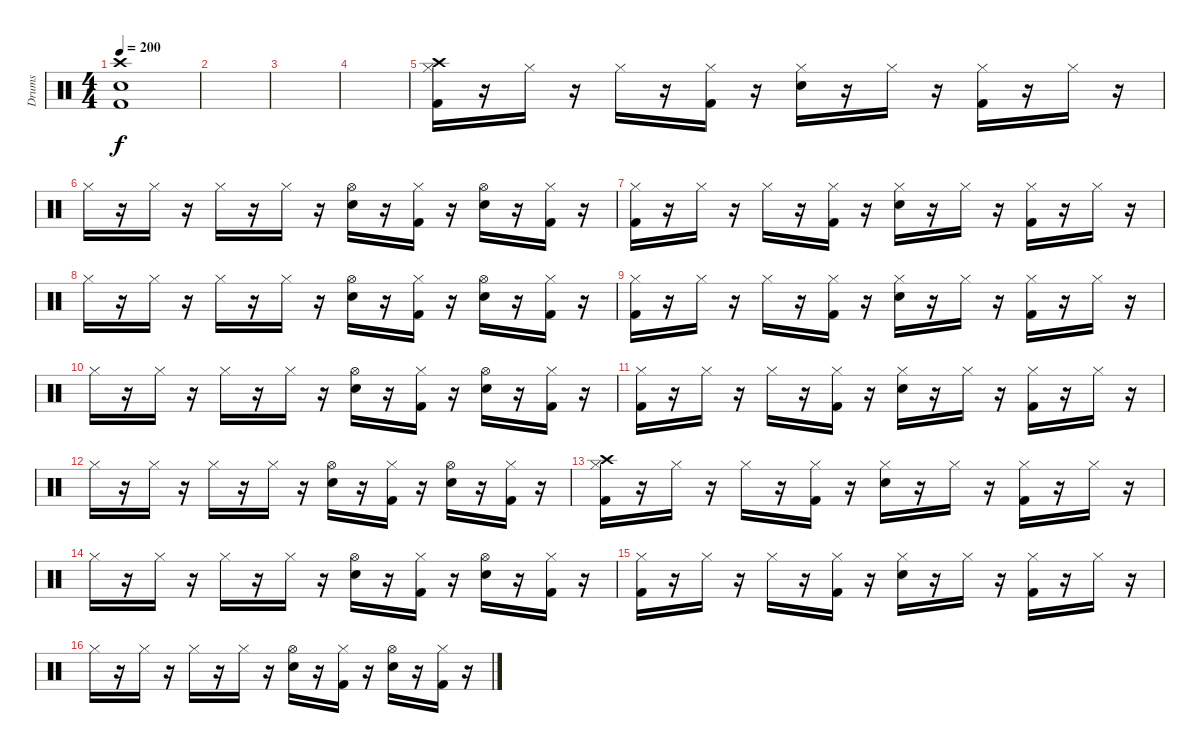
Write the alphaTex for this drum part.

\track ("Drums" "Drums") {instrument percussion}
\staff {score}
\articulation defaults
\ts (4 4)
\tempo 200
\clef neutral
\ks c
("Crash high (hit)" "Electric Snare (hit)" "Kick (hit) 2").1{dy f} |
|
|
|
("Crash high (hit)" "Hi-Hat (closed)" "Kick (hit) 2").16 r.16 "Hi-Hat (closed)".16 r.16 "Hi-Hat (closed)".16 r.16 ("Hi-Hat (closed)" "Kick (hit) 2").16 r.16 ("Hi-Hat (closed)" "Electric Snare (hit)").16 r.16 "Hi-Hat (closed)".16 r.16 ("Hi-Hat (closed)" "Kick (hit) 2").16 r.16 "Hi-Hat (closed)".16 r.16 |
"Hi-Hat (closed)".16 r.16 "Hi-Hat (closed)".16 r.16 "Hi-Hat (closed)".16 r.16 "Hi-Hat (closed)".16 r.16 ("Hi-Hat (open)" "Electric Snare (hit)").16 r.16 ("Hi-Hat (closed)" "Kick (hit) 2").16 r.16 ("Hi-Hat (open)" "Electric Snare (hit)").16 r.16 ("Hi-Hat (closed)" "Kick (hit) 2").16 r.16 |
("Hi-Hat (closed)" "Kick (hit) 2").16 r.16 "Hi-Hat (closed)".16 r.16 "Hi-Hat (closed)".16 r.16 ("Hi-Hat (closed)" "Kick (hit) 2").16 r.16 ("Hi-Hat (closed)" "Electric Snare (hit)").16 r.16 "Hi-Hat (closed)".16 r.16 ("Hi-Hat (closed)" "Kick (hit) 2").16 r.16 "Hi-Hat (closed)".16 r.16 |
"Hi-Hat (closed)".16 r.16 "Hi-Hat (closed)".16 r.16 "Hi-Hat (closed)".16 r.16 "Hi-Hat (closed)".16 r.16 ("Hi-Hat (open)" "Electric Snare (hit)").16 r.16 ("Hi-Hat (closed)" "Kick (hit) 2").16 r.16 ("Hi-Hat (open)" "Electric Snare (hit)").16 r.16 ("Hi-Hat (closed)" "Kick (hit) 2").16 r.16 |
("Hi-Hat (closed)" "Kick (hit) 2").16 r.16 "Hi-Hat (closed)".16 r.16 "Hi-Hat (closed)".16 r.16 ("Hi-Hat (closed)" "Kick (hit) 2").16 r.16 ("Hi-Hat (closed)" "Electric Snare (hit)").16 r.16 "Hi-Hat (closed)".16 r.16 ("Hi-Hat (closed)" "Kick (hit) 2").16 r.16 "Hi-Hat (closed)".16 r.16 |
"Hi-Hat (closed)".16 r.16 "Hi-Hat (closed)".16 r.16 "Hi-Hat (closed)".16 r.16 "Hi-Hat (closed)".16 r.16 ("Hi-Hat (open)" "Electric Snare (hit)").16 r.16 ("Hi-Hat (closed)" "Kick (hit) 2").16 r.16 ("Hi-Hat (open)" "Electric Snare (hit)").16 r.16 ("Hi-Hat (closed)" "Kick (hit) 2").16 r.16 |
("Hi-Hat (closed)" "Kick (hit) 2").16 r.16 "Hi-Hat (closed)".16 r.16 "Hi-Hat (closed)".16 r.16 ("Hi-Hat (closed)" "Kick (hit) 2").16 r.16 ("Hi-Hat (closed)" "Electric Snare (hit)").16 r.16 "Hi-Hat (closed)".16 r.16 ("Hi-Hat (closed)" "Kick (hit) 2").16 r.16 "Hi-Hat (closed)".16 r.16 |
"Hi-Hat (closed)".16 r.16 "Hi-Hat (closed)".16 r.16 "Hi-Hat (closed)".16 r.16 "Hi-Hat (closed)".16 r.16 ("Hi-Hat (open)" "Electric Snare (hit)").16 r.16 ("Hi-Hat (closed)" "Kick (hit) 2").16 r.16 ("Hi-Hat (open)" "Electric Snare (hit)").16 r.16 ("Hi-Hat (closed)" "Kick (hit) 2").16 r.16 |
("Crash high (hit)" "Hi-Hat (closed)" "Kick (hit) 2").16 r.16 "Hi-Hat (closed)".16 r.16 "Hi-Hat (closed)".16 r.16 ("Hi-Hat (closed)" "Kick (hit) 2").16 r.16 ("Hi-Hat (closed)" "Electric Snare (hit)").16 r.16 "Hi-Hat (closed)".16 r.16 ("Hi-Hat (closed)" "Kick (hit) 2").16 r.16 "Hi-Hat (closed)".16 r.16 |
"Hi-Hat (closed)".16 r.16 "Hi-Hat (closed)".16 r.16 "Hi-Hat (closed)".16 r.16 "Hi-Hat (closed)".16 r.16 ("Hi-Hat (open)" "Electric Snare (hit)").16 r.16 ("Hi-Hat (closed)" "Kick (hit) 2").16 r.16 ("Hi-Hat (open)" "Electric Snare (hit)").16 r.16 ("Hi-Hat (closed)" "Kick (hit) 2").16 r.16 |
("Hi-Hat (closed)" "Kick (hit) 2").16 r.16 "Hi-Hat (closed)".16 r.16 "Hi-Hat (closed)".16 r.16 ("Hi-Hat (closed)" "Kick (hit) 2").16 r.16 ("Hi-Hat (closed)" "Electric Snare (hit)").16 r.16 "Hi-Hat (closed)".16 r.16 ("Hi-Hat (closed)" "Kick (hit) 2").16 r.16 "Hi-Hat (closed)".16 r.16 |
"Hi-Hat (closed)".16 r.16 "Hi-Hat (closed)".16 r.16 "Hi-Hat (closed)".16 r.16 "Hi-Hat (closed)".16 r.16 ("Hi-Hat (open)" "Electric Snare (hit)").16 r.16 ("Hi-Hat (closed)" "Kick (hit) 2").16 r.16 ("Hi-Hat (open)" "Electric Snare (hit)").16 r.16 ("Hi-Hat (closed)" "Kick (hit) 2").16 r.16
